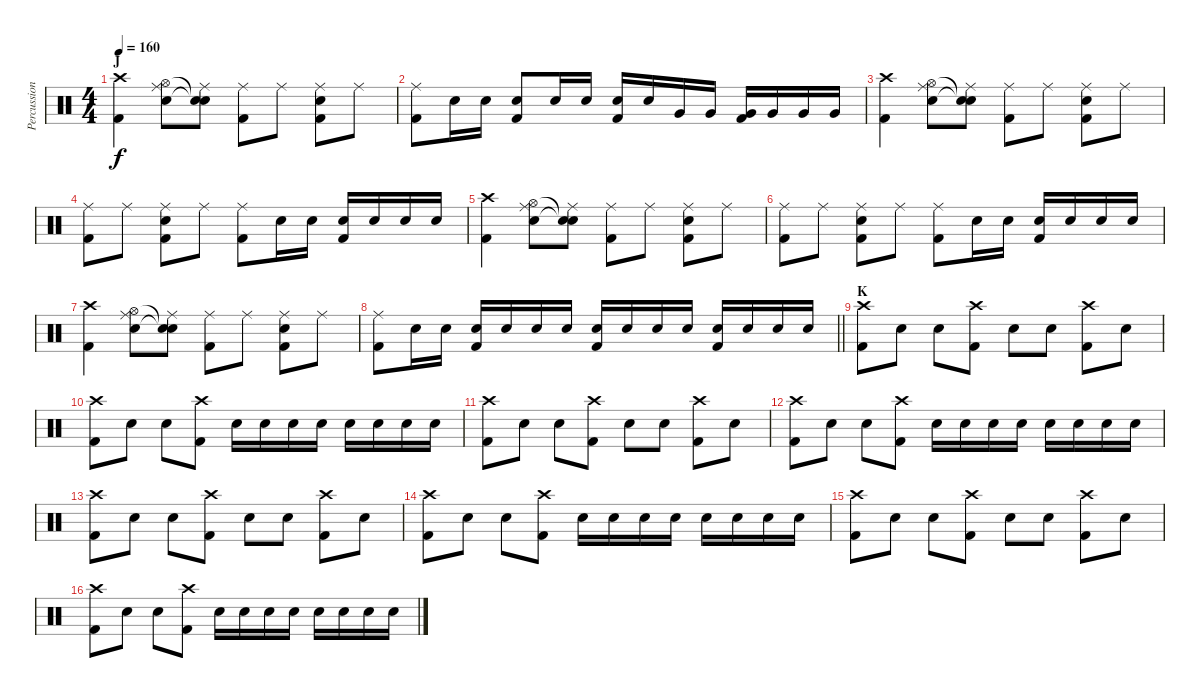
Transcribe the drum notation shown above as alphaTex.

\track ("Percussion" "Percussion") {instrument percussion}
\staff {score}
\articulation defaults
\ts (4 4)
\section ("" "J")
\tempo 160
\clef neutral
\ks c
("Crash high (hit)" "Kick (hit) 2").4{dy f} ("Ride (middle)" "Electric Snare (hit)" "Hi-Hat (open)").8 ("Ride (middle)" "Snare (hit)"{t} "Snare (hit)"{t}).8 ("Ride (middle)" "Kick (hit) 2").8 "Ride (middle)".8 ("Ride (middle)" "Electric Snare (hit)" "Kick (hit) 2").8 "Ride (middle)".8 |
("Ride (middle)" "Kick (hit) 2").8 "Electric Snare (hit)".16 "Electric Snare (hit)".16 ("Electric Snare (hit)" "Kick (hit) 2").8 "Electric Snare (hit)".16 "Electric Snare (hit)".16 ("Electric Snare (hit)" "Kick (hit) 2").16 "Electric Snare (hit)".16 "Very Low Tom (hit)".16 "Very Low Tom (hit)".16 ("Very Low Tom (hit)" "Kick (hit) 2").16 "Very Low Tom (hit)".16 "Very Low Tom (hit)".16 "Very Low Tom (hit)".16 |
("Crash high (hit)" "Kick (hit) 2").4 ("Ride (middle)" "Electric Snare (hit)" "Hi-Hat (open)").8 ("Ride (middle)" "Snare (hit)"{t} "Snare (hit)"{t}).8 ("Ride (middle)" "Kick (hit) 2").8 "Ride (middle)".8 ("Ride (middle)" "Electric Snare (hit)" "Kick (hit) 2").8 "Ride (middle)".8 |
("Ride (middle)" "Kick (hit) 2").8 "Ride (middle)".8 ("Ride (middle)" "Electric Snare (hit)" "Kick (hit) 2").8 "Ride (middle)".8 ("Ride (middle)" "Kick (hit) 2").8 "Electric Snare (hit)".16 "Electric Snare (hit)".16 ("Electric Snare (hit)" "Kick (hit) 2").16 "Electric Snare (hit)".16 "Electric Snare (hit)".16 "Electric Snare (hit)".16 |
("Crash high (hit)" "Kick (hit) 2").4 ("Ride (middle)" "Electric Snare (hit)" "Hi-Hat (open)").8 ("Ride (middle)" "Snare (hit)"{t} "Snare (hit)"{t}).8 ("Ride (middle)" "Kick (hit) 2").8 "Ride (middle)".8 ("Ride (middle)" "Electric Snare (hit)" "Kick (hit) 2").8 "Ride (middle)".8 |
("Ride (middle)" "Kick (hit) 2").8 "Ride (middle)".8 ("Ride (middle)" "Electric Snare (hit)" "Kick (hit) 2").8 "Ride (middle)".8 ("Ride (middle)" "Kick (hit) 2").8 "Electric Snare (hit)".16 "Electric Snare (hit)".16 ("Electric Snare (hit)" "Kick (hit) 2").16 "Electric Snare (hit)".16 "Electric Snare (hit)".16 "Electric Snare (hit)".16 |
("Crash high (hit)" "Kick (hit) 2").4 ("Ride (middle)" "Electric Snare (hit)" "Hi-Hat (open)").8 ("Ride (middle)" "Snare (hit)"{t} "Snare (hit)"{t}).8 ("Ride (middle)" "Kick (hit) 2").8 "Ride (middle)".8 ("Ride (middle)" "Electric Snare (hit)" "Kick (hit) 2").8 "Ride (middle)".8 |
\barLineRight lightlight
("Ride (middle)" "Kick (hit) 2").8 "Electric Snare (hit)".16 "Electric Snare (hit)".16 ("Electric Snare (hit)" "Kick (hit) 2").16 "Electric Snare (hit)".16 "Electric Snare (hit)".16 "Electric Snare (hit)".16 ("Electric Snare (hit)" "Kick (hit) 2").16 "Electric Snare (hit)".16 "Electric Snare (hit)".16 "Electric Snare (hit)".16 ("Electric Snare (hit)" "Kick (hit) 2").16 "Electric Snare (hit)".16 "Electric Snare (hit)".16 "Electric Snare (hit)".16 |
\section ("" "K")
("Crash high (hit)" "Kick (hit) 2").8 "Electric Snare (hit)".8 "Electric Snare (hit)".8 ("Crash high (hit)" "Kick (hit) 2").8 "Electric Snare (hit)".8 "Electric Snare (hit)".8 ("Crash high (hit)" "Kick (hit) 2").8 "Electric Snare (hit)".8 |
("Crash high (hit)" "Kick (hit) 2").8 "Electric Snare (hit)".8 "Electric Snare (hit)".8 ("Crash high (hit)" "Kick (hit) 2").8 "Electric Snare (hit)".16 "Electric Snare (hit)".16 "Electric Snare (hit)".16 "Electric Snare (hit)".16 "Electric Snare (hit)".16 "Electric Snare (hit)".16 "Electric Snare (hit)".16 "Electric Snare (hit)".16 |
("Crash high (hit)" "Kick (hit) 2").8 "Electric Snare (hit)".8 "Electric Snare (hit)".8 ("Crash high (hit)" "Kick (hit) 2").8 "Electric Snare (hit)".8 "Electric Snare (hit)".8 ("Crash high (hit)" "Kick (hit) 2").8 "Electric Snare (hit)".8 |
("Crash high (hit)" "Kick (hit) 2").8 "Electric Snare (hit)".8 "Electric Snare (hit)".8 ("Crash high (hit)" "Kick (hit) 2").8 "Electric Snare (hit)".16 "Electric Snare (hit)".16 "Electric Snare (hit)".16 "Electric Snare (hit)".16 "Electric Snare (hit)".16 "Electric Snare (hit)".16 "Electric Snare (hit)".16 "Electric Snare (hit)".16 |
("Crash high (hit)" "Kick (hit) 2").8 "Electric Snare (hit)".8 "Electric Snare (hit)".8 ("Crash high (hit)" "Kick (hit) 2").8 "Electric Snare (hit)".8 "Electric Snare (hit)".8 ("Crash high (hit)" "Kick (hit) 2").8 "Electric Snare (hit)".8 |
("Crash high (hit)" "Kick (hit) 2").8 "Electric Snare (hit)".8 "Electric Snare (hit)".8 ("Crash high (hit)" "Kick (hit) 2").8 "Electric Snare (hit)".16 "Electric Snare (hit)".16 "Electric Snare (hit)".16 "Electric Snare (hit)".16 "Electric Snare (hit)".16 "Electric Snare (hit)".16 "Electric Snare (hit)".16 "Electric Snare (hit)".16 |
("Crash high (hit)" "Kick (hit) 2").8 "Electric Snare (hit)".8 "Electric Snare (hit)".8 ("Crash high (hit)" "Kick (hit) 2").8 "Electric Snare (hit)".8 "Electric Snare (hit)".8 ("Crash high (hit)" "Kick (hit) 2").8 "Electric Snare (hit)".8 |
("Crash high (hit)" "Kick (hit) 2").8 "Electric Snare (hit)".8 "Electric Snare (hit)".8 ("Crash high (hit)" "Kick (hit) 2").8 "Electric Snare (hit)".16 "Electric Snare (hit)".16 "Electric Snare (hit)".16 "Electric Snare (hit)".16 "Electric Snare (hit)".16 "Electric Snare (hit)".16 "Electric Snare (hit)".16 "Electric Snare (hit)".16
